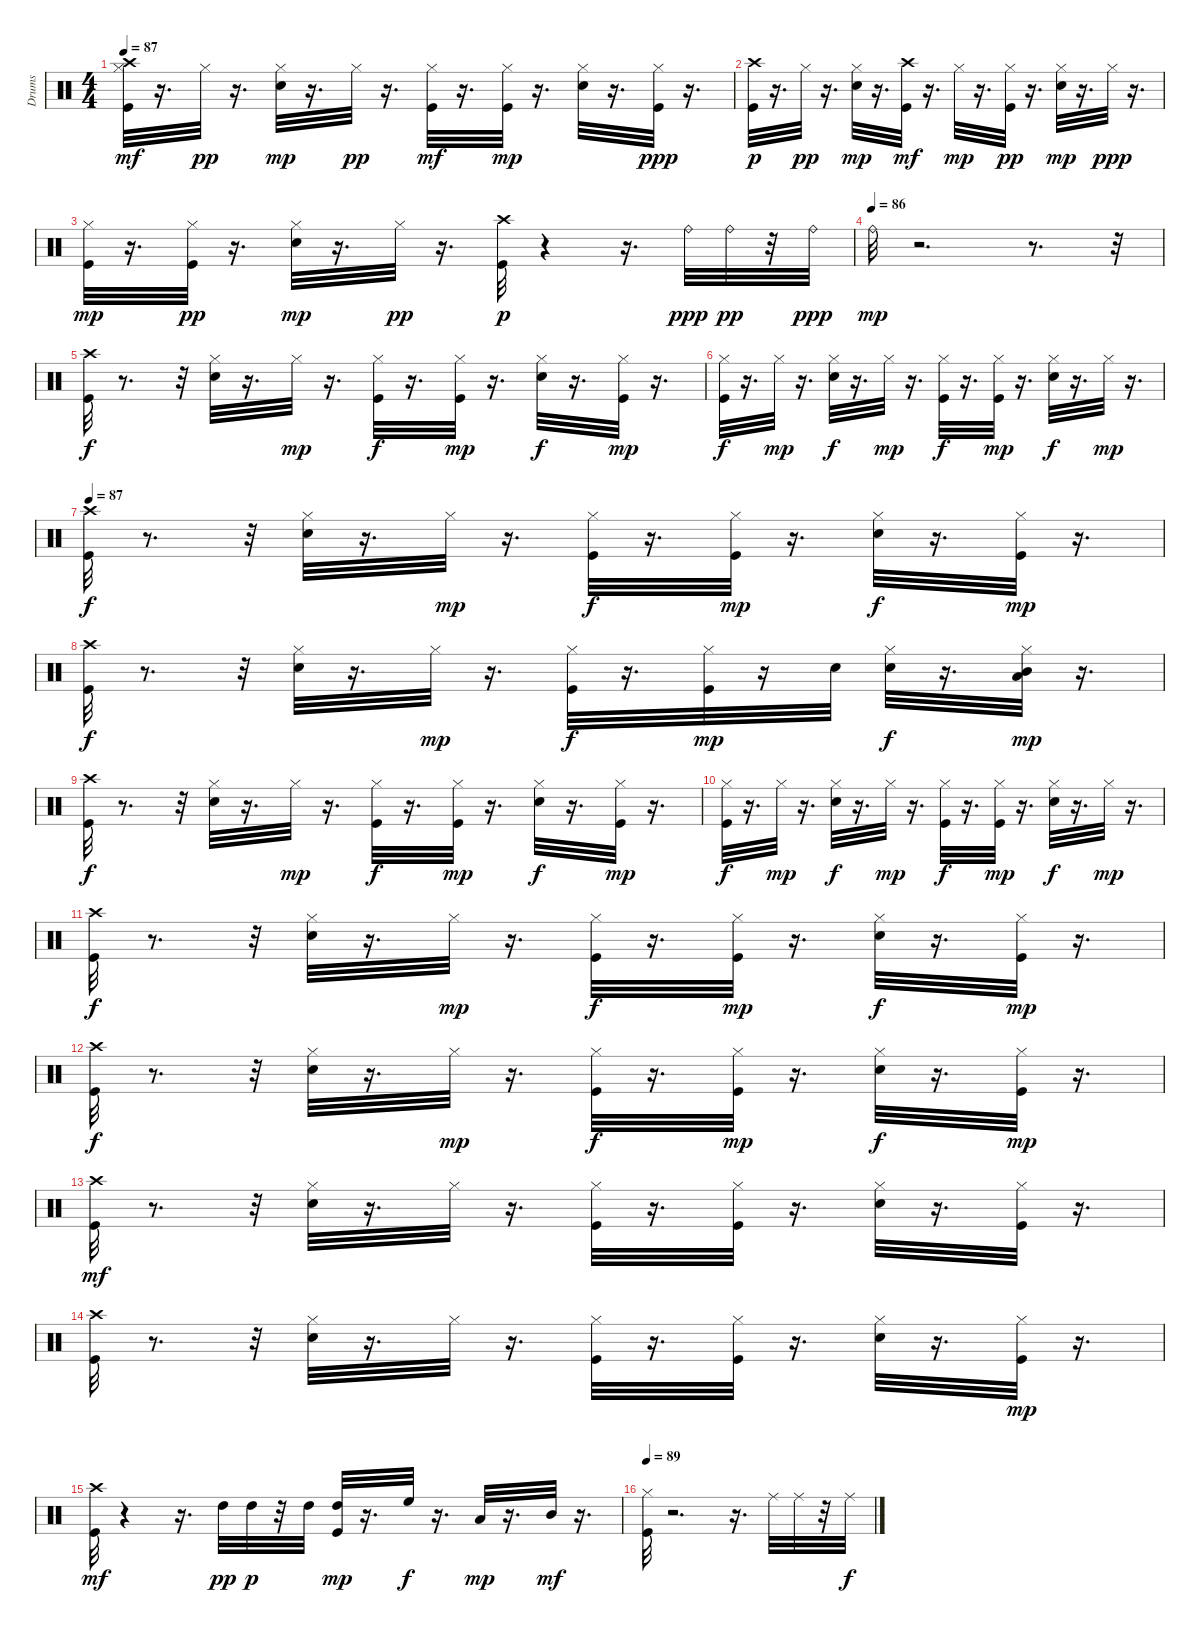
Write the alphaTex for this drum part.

\track ("Drums" "Drums") {instrument percussion}
\staff {score}
\articulation defaults
\ts (4 4)
\tempo 87
\clef neutral
\ks c
("Crash high (hit)" "Hi-Hat (closed)" "Kick (hit)").32{dy mf} r.16{d} "Hi-Hat (closed)".32{dy pp} r.16{d} ("Electric Snare (hit)" "Hi-Hat (closed)").32{dy mp} r.16{d} "Hi-Hat (closed)".32{dy pp} r.16{d} ("Hi-Hat (closed)" "Kick (hit)").32{dy mf} r.16{d} ("Hi-Hat (closed)" "Kick (hit)").32{dy mp} r.16{d} ("Electric Snare (hit)" "Hi-Hat (closed)").32 r.16{d} ("Hi-Hat (closed)" "Kick (hit)").32{dy ppp} r.16{d} |
("Kick (hit)" "Crash high (hit)").32{dy p} r.16{d} "Hi-Hat (closed)".32{dy pp} r.16{d} ("Electric Snare (hit)" "Hi-Hat (closed)").32{dy mp} r.16{d} ("Crash high (hit)" "Kick (hit)").32{dy mf} r.16{d} "Hi-Hat (closed)".32{dy mp} r.16{d} ("Kick (hit)" "Hi-Hat (closed)").32{dy pp} r.16{d} ("Electric Snare (hit)" "Hi-Hat (closed)").32{dy mp} r.16{d} "Hi-Hat (closed)".32{dy ppp} r.16{d} |
("Kick (hit)" "Hi-Hat (closed)").32{dy mp} r.16{d} ("Kick (hit)" "Hi-Hat (closed)").32{dy pp} r.16{d} ("Electric Snare (hit)" "Hi-Hat (closed)").32{dy mp} r.16{d} "Hi-Hat (closed)".32{dy pp} r.16{d} ("Kick (hit)" "Crash high (hit)").32{dy p} r.4 r.16{d} "Ride (bell)".32{dy ppp} "Ride (bell)".32{dy pp} r.32 "Ride (bell)".32{dy ppp} |
\tempo (86)
"Ride (bell)".32{dy mp} r.2{d} r.8{d} r.32 |
("Kick (hit)" "Crash high (hit)").32{dy f} r.8{d} r.32 ("Hi-Hat (closed)" "Electric Snare (hit)").32 r.16{d} "Hi-Hat (closed)".32{dy mp} r.16{d} ("Kick (hit)" "Hi-Hat (closed)").32{dy f} r.16{d} ("Hi-Hat (closed)" "Kick (hit)").32{dy mp} r.16{d} ("Hi-Hat (closed)" "Electric Snare (hit)").32{dy f} r.16{d} ("Hi-Hat (closed)" "Kick (hit)").32{dy mp} r.16{d} |
("Kick (hit)" "Hi-Hat (closed)").32{dy f} r.16{d} "Hi-Hat (closed)".32{dy mp} r.16{d} ("Electric Snare (hit)" "Hi-Hat (closed)").32{dy f} r.16{d} "Hi-Hat (closed)".32{dy mp} r.16{d} ("Hi-Hat (closed)" "Kick (hit)").32{dy f} r.16{d} ("Hi-Hat (closed)" "Kick (hit)").32{dy mp} r.16{d} ("Hi-Hat (closed)" "Electric Snare (hit)").32{dy f} r.16{d} "Hi-Hat (closed)".32{dy mp} r.16{d} |
\tempo 87
("Kick (hit)" "Crash high (hit)").32{dy f} r.8{d} r.32 ("Electric Snare (hit)" "Hi-Hat (closed)").32 r.16{d} "Hi-Hat (closed)".32{dy mp} r.16{d} ("Hi-Hat (closed)" "Kick (hit)").32{dy f} r.16{d} ("Hi-Hat (closed)" "Kick (hit)").32{dy mp} r.16{d} ("Electric Snare (hit)" "Hi-Hat (closed)").32{dy f} r.16{d} ("Hi-Hat (closed)" "Kick (hit)").32{dy mp} r.16{d} |
("Kick (hit)" "Crash high (hit)").32{dy f} r.8{d} r.32 ("Electric Snare (hit)" "Hi-Hat (closed)").32 r.16{d} "Hi-Hat (closed)".32{dy mp} r.16{d} ("Hi-Hat (closed)" "Kick (hit)").32{dy f} r.16{d} ("Hi-Hat (closed)" "Kick (hit)").32{dy mp} r.16 "Electric Snare (hit)".32 ("Electric Snare (hit)" "Hi-Hat (closed)").32{dy f} r.16{d} ("Low Tom (hit)" "Hi-Hat (closed)" "Mid Tom (hit)").32{dy mp} r.16{d} |
("Kick (hit)" "Crash high (hit)").32{dy f} r.8{d} r.32 ("Hi-Hat (closed)" "Electric Snare (hit)").32 r.16{d} "Hi-Hat (closed)".32{dy mp} r.16{d} ("Kick (hit)" "Hi-Hat (closed)").32{dy f} r.16{d} ("Kick (hit)" "Hi-Hat (closed)").32{dy mp} r.16{d} ("Hi-Hat (closed)" "Electric Snare (hit)").32{dy f} r.16{d} ("Hi-Hat (closed)" "Kick (hit)").32{dy mp} r.16{d} |
("Hi-Hat (closed)" "Kick (hit)").32{dy f} r.16{d} "Hi-Hat (closed)".32{dy mp} r.16{d} ("Electric Snare (hit)" "Hi-Hat (closed)").32{dy f} r.16{d} "Hi-Hat (closed)".32{dy mp} r.16{d} ("Hi-Hat (closed)" "Kick (hit)").32{dy f} r.16{d} ("Hi-Hat (closed)" "Kick (hit)").32{dy mp} r.16{d} ("Electric Snare (hit)" "Hi-Hat (closed)").32{dy f} r.16{d} "Hi-Hat (closed)".32{dy mp} r.16{d} |
("Kick (hit)" "Crash high (hit)").32{dy f} r.8{d} r.32 ("Electric Snare (hit)" "Hi-Hat (closed)").32 r.16{d} "Hi-Hat (closed)".32{dy mp} r.16{d} ("Hi-Hat (closed)" "Kick (hit)").32{dy f} r.16{d} ("Hi-Hat (closed)" "Kick (hit)").32{dy mp} r.16{d} ("Electric Snare (hit)" "Hi-Hat (closed)").32{dy f} r.16{d} ("Hi-Hat (closed)" "Kick (hit)").32{dy mp} r.16{d} |
("Kick (hit)" "Crash high (hit)").32{dy f} r.8{d} r.32 ("Electric Snare (hit)" "Hi-Hat (closed)").32 r.16{d} "Hi-Hat (closed)".32{dy mp} r.16{d} ("Hi-Hat (closed)" "Kick (hit)").32{dy f} r.16{d} ("Hi-Hat (closed)" "Kick (hit)").32{dy mp} r.16{d} ("Electric Snare (hit)" "Hi-Hat (closed)").32{dy f} r.16{d} ("Hi-Hat (closed)" "Kick (hit)").32{dy mp} r.16{d} |
("Kick (hit)" "Crash high (hit)").32{dy mf} r.8{d} r.32 ("Electric Snare (hit)" "Hi-Hat (closed)").32 r.16{d} "Hi-Hat (closed)".32 r.16{d} ("Hi-Hat (closed)" "Kick (hit)").32 r.16{d} ("Hi-Hat (closed)" "Kick (hit)").32 r.16{d} ("Electric Snare (hit)" "Hi-Hat (closed)").32 r.16{d} ("Hi-Hat (closed)" "Kick (hit)").32 r.16{d} |
("Kick (hit)" "Crash high (hit)").32 r.8{d} r.32 ("Electric Snare (hit)" "Hi-Hat (closed)").32 r.16{d} "Hi-Hat (closed)".32 r.16{d} ("Hi-Hat (closed)" "Kick (hit)").32 r.16{d} ("Hi-Hat (closed)" "Kick (hit)").32 r.16{d} ("Electric Snare (hit)" "Hi-Hat (closed)").32 r.16{d} ("Hi-Hat (closed)" "Kick (hit)").32{dy mp} r.16{d} |
("Crash high (hit)" "Kick (hit)").32{dy mf} r.4 r.16{d} "High Tom (hit)".32{dy pp} "High Tom (hit)".32{dy p} r.32 "High Tom (hit)".32 ("Kick (hit)" "High Tom (hit)").32{dy mp} r.16{d} "High Floor Tom (hit)".32{dy f} r.16{d} "Low Tom (hit)".32{dy mp} r.16{d} "Mid Tom (hit)".32{dy mf} r.16{d} |
\tempo 89
("Hi-Hat (closed)" "Kick (hit)").32 r.2{d} r.16{d} "Ride (middle)".32 "Ride (middle)".32 r.32 "Ride (middle)".32{dy f}
